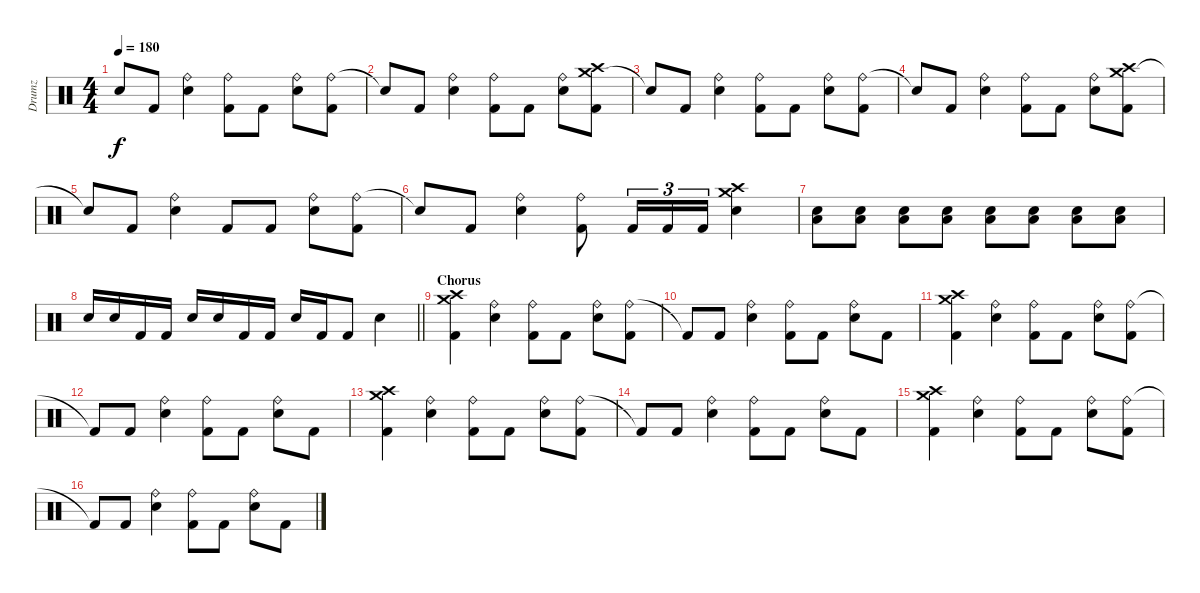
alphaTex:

\track ("Drumz" "Drumz") {instrument percussion}
\staff {score}
\articulation defaults
\ts (4 4)
\tempo 180
\clef neutral
\ks c "Snare (hit)"{t}.8{dy f} "Kick (hit) 2".8
("Ride (bell)" "Electric Snare (hit)").4 ("Ride (bell)" "Kick (hit) 2").8 "Kick (hit) 2".8 ("Ride (bell)" "Electric Snare (hit)").8 ("Ride (bell)" "Kick (hit) 2").8 |
"Snare (hit)"{t}.8 "Kick (hit) 2".8 ("Ride (bell)" "Electric Snare (hit)").4 ("Ride (bell)" "Kick (hit) 2").8 "Kick (hit) 2".8 ("Ride (bell)" "Electric Snare (hit)").8 ("Crash medium (hit)" "Crash high (hit)" "Kick (hit) 2").8 |
"Snare (hit)"{t}.8 "Kick (hit) 2".8 ("Ride (bell)" "Electric Snare (hit)").4 ("Ride (bell)" "Kick (hit) 2").8 "Kick (hit) 2".8 ("Ride (bell)" "Electric Snare (hit)").8 ("Ride (bell)" "Kick (hit) 2").8 |
"Snare (hit)"{t}.8 "Kick (hit) 2".8 ("Ride (bell)" "Electric Snare (hit)").4 ("Ride (bell)" "Kick (hit) 2").8 "Kick (hit) 2".8 ("Ride (bell)" "Electric Snare (hit)").8 ("Crash medium (hit)" "Crash high (hit)" "Kick (hit) 2").8 |
"Snare (hit)"{t}.8 "Kick (hit) 2".8 ("Ride (bell)" "Electric Snare (hit)").4 "Kick (hit) 2".8 "Kick (hit) 2".8 ("Ride (bell)" "Electric Snare (hit)").8 ("Ride (bell)" "Kick (hit) 2").8 |
"Snare (hit)"{t}.8 "Kick (hit) 2".8 ("Ride (bell)" "Electric Snare (hit)").4 ("Ride (bell)" "Kick (hit) 2").8 "Kick (hit) 2".16{tu (3 2)} "Kick (hit) 2".16{tu (3 2)} "Kick (hit) 2".16{tu (3 2)} ("Crash medium (hit)" "Crash high (hit)" "Electric Snare (hit)").4 |
("Low Tom (hit)" "Electric Snare (hit)").8 ("Low Tom (hit)" "Electric Snare (hit)").8 ("Low Tom (hit)" "Electric Snare (hit)").8 ("Low Tom (hit)" "Electric Snare (hit)").8 ("Low Tom (hit)" "Electric Snare (hit)").8 ("Low Tom (hit)" "Electric Snare (hit)").8 ("Low Tom (hit)" "Electric Snare (hit)").8 ("Low Tom (hit)" "Electric Snare (hit)").8 |
\barLineRight lightlight "Electric Snare (hit)".16 "Electric Snare (hit)".16 "Kick (hit) 2".16 "Kick (hit) 2".16 "Electric Snare (hit)".16 "Electric Snare (hit)".16 "Kick (hit) 2".16 "Kick (hit) 2".16 "Electric Snare (hit)".16 "Kick (hit) 2".16 "Kick (hit) 2".8 "Electric Snare (hit)".4
|
\section ("" "Chorus")
("Crash high (hit)" "Crash medium (hit)" "Kick (hit) 2").4 ("Ride (bell)" "Electric Snare (hit)").4 ("Ride (bell)" "Kick (hit) 2").8 "Kick (hit) 2".8 ("Ride (bell)" "Electric Snare (hit)").8 ("Ride (bell)" "Kick (hit) 2").8 |
"Kick (hit) 2"{t}.8 "Kick (hit) 2".8 ("Ride (bell)" "Electric Snare (hit)").4 ("Ride (bell)" "Kick (hit) 2").8 "Kick (hit) 2".8 ("Ride (bell)" "Electric Snare (hit)").8 "Kick (hit) 2".8 |
("Crash high (hit)" "Crash medium (hit)" "Kick (hit) 2").4 ("Ride (bell)" "Electric Snare (hit)").4 ("Ride (bell)" "Kick (hit) 2").8 "Kick (hit) 2".8 ("Ride (bell)" "Electric Snare (hit)").8 ("Ride (bell)" "Kick (hit) 2").8 |
"Kick (hit) 2"{t}.8 "Kick (hit) 2".8 ("Ride (bell)" "Electric Snare (hit)").4 ("Ride (bell)" "Kick (hit) 2").8 "Kick (hit) 2".8 ("Ride (bell)" "Electric Snare (hit)").8 "Kick (hit) 2".8 |
("Crash high (hit)" "Crash medium (hit)" "Kick (hit) 2").4 ("Ride (bell)" "Electric Snare (hit)").4 ("Ride (bell)" "Kick (hit) 2").8 "Kick (hit) 2".8 ("Ride (bell)" "Electric Snare (hit)").8 ("Ride (bell)" "Kick (hit) 2").8 |
"Kick (hit) 2"{t}.8 "Kick (hit) 2".8 ("Ride (bell)" "Electric Snare (hit)").4 ("Ride (bell)" "Kick (hit) 2").8 "Kick (hit) 2".8 ("Ride (bell)" "Electric Snare (hit)").8 "Kick (hit) 2".8 |
("Crash high (hit)" "Crash medium (hit)" "Kick (hit) 2").4 ("Ride (bell)" "Electric Snare (hit)").4 ("Ride (bell)" "Kick (hit) 2").8 "Kick (hit) 2".8 ("Ride (bell)" "Electric Snare (hit)").8 ("Ride (bell)" "Kick (hit) 2").8 |
"Kick (hit) 2"{t}.8 "Kick (hit) 2".8 ("Ride (bell)" "Electric Snare (hit)").4 ("Ride (bell)" "Kick (hit) 2").8 "Kick (hit) 2".8 ("Ride (bell)" "Electric Snare (hit)").8 "Kick (hit) 2".8
